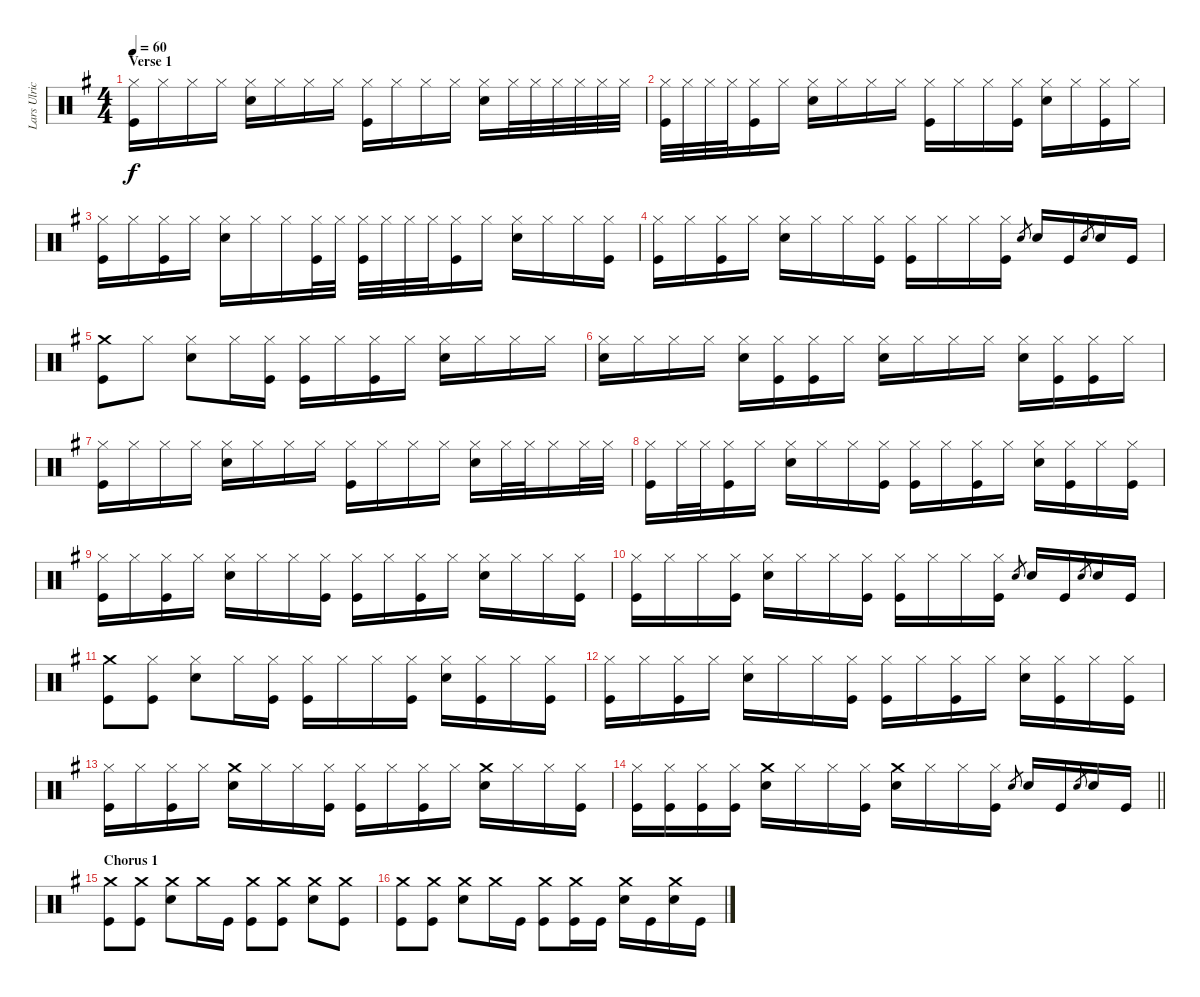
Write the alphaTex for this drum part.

\track ("Lars Ulrich [Drums]" "Lars Ulric") {instrument percussion}
\staff {score}
\articulation defaults
\ts (4 4)
\section ("" "Verse 1")
\tempo 60
\clef neutral
\ks g
("Kick (hit)" "Hi-Hat (closed)").16{dy f} "Hi-Hat (closed)".16 "Hi-Hat (closed)".16 "Hi-Hat (closed)".16 ("Electric Snare (hit)" "Hi-Hat (closed)").16 "Hi-Hat (closed)".16 "Hi-Hat (closed)".16 "Hi-Hat (closed)".16 ("Kick (hit)" "Hi-Hat (closed)").16 "Hi-Hat (closed)".16 "Hi-Hat (closed)".16 "Hi-Hat (closed)".16 ("Electric Snare (hit)" "Hi-Hat (closed)").16 "Hi-Hat (closed)".32 "Hi-Hat (closed)".32 "Hi-Hat (closed)".32 "Hi-Hat (closed)".32 "Hi-Hat (closed)".32 "Hi-Hat (closed)".32 |
("Kick (hit)" "Hi-Hat (closed)").32 "Hi-Hat (closed)".32 "Hi-Hat (closed)".32 "Hi-Hat (closed)".32 ("Kick (hit)" "Hi-Hat (closed)").16 "Hi-Hat (closed)".16 ("Electric Snare (hit)" "Hi-Hat (closed)").16 "Hi-Hat (closed)".16 "Hi-Hat (closed)".16 "Hi-Hat (closed)".16 ("Kick (hit)" "Hi-Hat (closed)").16 "Hi-Hat (closed)".16 "Hi-Hat (closed)".16 ("Kick (hit)" "Hi-Hat (closed)").16 ("Electric Snare (hit)" "Hi-Hat (closed)").16 "Hi-Hat (closed)".16 ("Kick (hit)" "Hi-Hat (closed)").16 "Hi-Hat (closed)".16 |
("Kick (hit)" "Hi-Hat (closed)").16 "Hi-Hat (closed)".16 ("Kick (hit)" "Hi-Hat (closed)").16 "Hi-Hat (closed)".16 ("Electric Snare (hit)" "Hi-Hat (closed)").16 "Hi-Hat (closed)".16 "Hi-Hat (closed)".16 ("Kick (hit)" "Hi-Hat (closed)").32 "Hi-Hat (closed)".32 ("Kick (hit)" "Hi-Hat (closed)").32 "Hi-Hat (closed)".32 "Hi-Hat (closed)".32 "Hi-Hat (closed)".32 ("Kick (hit)" "Hi-Hat (closed)").16 "Hi-Hat (closed)".16 ("Electric Snare (hit)" "Hi-Hat (closed)").16 "Hi-Hat (closed)".16 "Hi-Hat (closed)".16 ("Kick (hit)" "Hi-Hat (closed)").16 |
("Kick (hit)" "Hi-Hat (closed)").16 "Hi-Hat (closed)".16 ("Kick (hit)" "Hi-Hat (closed)").16 "Hi-Hat (closed)".16 ("Electric Snare (hit)" "Hi-Hat (closed)").16 "Hi-Hat (closed)".16 "Hi-Hat (closed)".16 ("Kick (hit)" "Hi-Hat (closed)").16 ("Kick (hit)" "Hi-Hat (closed)").16 "Hi-Hat (closed)".16 "Hi-Hat (closed)".16 ("Kick (hit)" "Hi-Hat (closed)").16 "Electric Snare (hit)".8{gr} "Electric Snare (hit)".16 "Kick (hit)".16 "Electric Snare (hit)".8{gr} "Electric Snare (hit)".16 "Kick (hit)".16 |
("Kick (hit)" "Crash medium (hit)").8 "Hi-Hat (closed)".8 ("Electric Snare (hit)" "Hi-Hat (closed)").8 "Hi-Hat (closed)".16 ("Kick (hit)" "Hi-Hat (closed)").16 ("Kick (hit)" "Hi-Hat (closed)").16 "Hi-Hat (closed)".16 ("Kick (hit)" "Hi-Hat (closed)").16 "Hi-Hat (closed)".16 ("Electric Snare (hit)" "Hi-Hat (closed)").16 "Hi-Hat (closed)".16 "Hi-Hat (closed)".16 "Hi-Hat (closed)".16 |
("Electric Snare (hit)" "Hi-Hat (closed)").16 "Hi-Hat (closed)".16 "Hi-Hat (closed)".16 "Hi-Hat (closed)".16 ("Electric Snare (hit)" "Hi-Hat (closed)").16 ("Kick (hit)" "Hi-Hat (closed)").16 ("Kick (hit)" "Hi-Hat (closed)").16 "Hi-Hat (closed)".16 ("Electric Snare (hit)" "Hi-Hat (closed)").16 "Hi-Hat (closed)".16 "Hi-Hat (closed)".16 "Hi-Hat (closed)".16 ("Electric Snare (hit)" "Hi-Hat (closed)").16 ("Kick (hit)" "Hi-Hat (closed)").16 ("Kick (hit)" "Hi-Hat (closed)").16 "Hi-Hat (closed)".16 |
("Kick (hit)" "Hi-Hat (closed)").16 "Hi-Hat (closed)".16 "Hi-Hat (closed)".16 "Hi-Hat (closed)".16 ("Electric Snare (hit)" "Hi-Hat (closed)").16 "Hi-Hat (closed)".16 "Hi-Hat (closed)".16 "Hi-Hat (closed)".16 ("Kick (hit)" "Hi-Hat (closed)").16 "Hi-Hat (closed)".16 "Hi-Hat (closed)".16 "Hi-Hat (closed)".16 ("Electric Snare (hit)" "Hi-Hat (closed)").16 "Hi-Hat (closed)".32 "Hi-Hat (closed)".32 "Hi-Hat (closed)".16 "Hi-Hat (closed)".32 "Hi-Hat (closed)".32 |
("Kick (hit)" "Hi-Hat (closed)").16 "Hi-Hat (closed)".32 "Hi-Hat (closed)".32 ("Kick (hit)" "Hi-Hat (closed)").16 "Hi-Hat (closed)".16 ("Electric Snare (hit)" "Hi-Hat (closed)").16 "Hi-Hat (closed)".16 "Hi-Hat (closed)".16 ("Kick (hit)" "Hi-Hat (closed)").16 ("Kick (hit)" "Hi-Hat (closed)").16 "Hi-Hat (closed)".16 ("Kick (hit)" "Hi-Hat (closed)").16 "Hi-Hat (closed)".16 ("Electric Snare (hit)" "Hi-Hat (closed)").16 ("Kick (hit)" "Hi-Hat (closed)").16 "Hi-Hat (closed)".16 ("Kick (hit)" "Hi-Hat (closed)").16 |
("Kick (hit)" "Hi-Hat (closed)").16 "Hi-Hat (closed)".16 ("Kick (hit)" "Hi-Hat (closed)").16 "Hi-Hat (closed)".16 ("Electric Snare (hit)" "Hi-Hat (closed)").16 "Hi-Hat (closed)".16 "Hi-Hat (closed)".16 ("Kick (hit)" "Hi-Hat (closed)").16 ("Kick (hit)" "Hi-Hat (closed)").16 "Hi-Hat (closed)".16 ("Kick (hit)" "Hi-Hat (closed)").16 "Hi-Hat (closed)".16 ("Electric Snare (hit)" "Hi-Hat (closed)").16 "Hi-Hat (closed)".16 "Hi-Hat (closed)".16 ("Kick (hit)" "Hi-Hat (closed)").16 |
("Kick (hit)" "Hi-Hat (closed)").16 "Hi-Hat (closed)".16 "Hi-Hat (closed)".16 ("Kick (hit)" "Hi-Hat (closed)").16 ("Electric Snare (hit)" "Hi-Hat (closed)").16 "Hi-Hat (closed)".16 "Hi-Hat (closed)".16 ("Kick (hit)" "Hi-Hat (closed)").16 ("Kick (hit)" "Hi-Hat (closed)").16 "Hi-Hat (closed)".16 "Hi-Hat (closed)".16 ("Kick (hit)" "Hi-Hat (closed)").16 "Electric Snare (hit)".8{gr} "Electric Snare (hit)".16 "Kick (hit)".16 "Electric Snare (hit)".8{gr} "Electric Snare (hit)".16 "Kick (hit)".16 |
("Kick (hit)" "Crash medium (hit)").8 ("Kick (hit)" "Hi-Hat (closed)").8 ("Electric Snare (hit)" "Hi-Hat (closed)").8 "Hi-Hat (closed)".16 ("Kick (hit)" "Hi-Hat (closed)").16 ("Kick (hit)" "Hi-Hat (closed)").16 "Hi-Hat (closed)".16 "Hi-Hat (closed)".16 ("Kick (hit)" "Hi-Hat (closed)").16 ("Electric Snare (hit)" "Hi-Hat (closed)").16 ("Kick (hit)" "Hi-Hat (closed)").16 "Hi-Hat (closed)".16 ("Kick (hit)" "Hi-Hat (closed)").16 |
("Kick (hit)" "Hi-Hat (closed)").16 "Hi-Hat (closed)".16 ("Kick (hit)" "Hi-Hat (closed)").16 "Hi-Hat (closed)".16 ("Electric Snare (hit)" "Hi-Hat (closed)").16 "Hi-Hat (closed)".16 "Hi-Hat (closed)".16 ("Kick (hit)" "Hi-Hat (closed)").16 ("Kick (hit)" "Hi-Hat (closed)").16 "Hi-Hat (closed)".16 ("Kick (hit)" "Hi-Hat (closed)").16 "Hi-Hat (closed)".16 ("Electric Snare (hit)" "Hi-Hat (closed)").16 ("Kick (hit)" "Hi-Hat (closed)").16 "Hi-Hat (closed)".16 ("Kick (hit)" "Hi-Hat (closed)").16 |
("Kick (hit)" "Hi-Hat (closed)").16 "Hi-Hat (closed)".16 ("Kick (hit)" "Hi-Hat (closed)").16 "Hi-Hat (closed)".16 ("Electric Snare (hit)" "Crash medium (hit)").16 "Hi-Hat (closed)".16 "Hi-Hat (closed)".16 ("Kick (hit)" "Hi-Hat (closed)").16 ("Kick (hit)" "Hi-Hat (closed)").16 "Hi-Hat (closed)".16 ("Kick (hit)" "Hi-Hat (closed)").16 "Hi-Hat (closed)".16 ("Electric Snare (hit)" "Crash medium (hit)").16 "Hi-Hat (closed)".16 "Hi-Hat (closed)".16 ("Kick (hit)" "Hi-Hat (closed)").16 |
\barLineRight lightlight
("Kick (hit)" "Hi-Hat (closed)").16 ("Kick (hit)" "Hi-Hat (closed)").16 ("Kick (hit)" "Hi-Hat (closed)").16 ("Kick (hit)" "Hi-Hat (closed)").16 ("Electric Snare (hit)" "Crash medium (hit)").16 "Hi-Hat (closed)".16 "Hi-Hat (closed)".16 ("Kick (hit)" "Hi-Hat (closed)").16 ("Electric Snare (hit)" "Crash medium (hit)").16 "Hi-Hat (closed)".16 "Hi-Hat (closed)".16 ("Kick (hit)" "Hi-Hat (closed)").16 "Electric Snare (hit)".8{gr} "Electric Snare (hit)".16 "Kick (hit)".16 "Electric Snare (hit)".8{gr} "Electric Snare (hit)".16 "Kick (hit)".16 |
\section ("" "Chorus 1")
("Kick (hit)" "Crash medium (hit)").8 ("Kick (hit)" "Crash medium (hit)").8 ("Electric Snare (hit)" "Crash medium (hit)").8 "Crash medium (hit)".16 "Kick (hit)".16 ("Kick (hit)" "Crash medium (hit)").8 ("Kick (hit)" "Crash medium (hit)").8 ("Electric Snare (hit)" "Crash medium (hit)").8 ("Kick (hit)" "Crash medium (hit)").8 |
("Kick (hit)" "Crash medium (hit)").8 ("Kick (hit)" "Crash medium (hit)").8 ("Electric Snare (hit)" "Crash medium (hit)").8 "Crash medium (hit)".16 "Kick (hit)".16 ("Kick (hit)" "Crash medium (hit)").8 ("Kick (hit)" "Crash medium (hit)").16 "Kick (hit)".16 ("Electric Snare (hit)" "Crash medium (hit)").16 "Kick (hit)".16 ("Electric Snare (hit)" "Crash medium (hit)").16 "Kick (hit)".16
